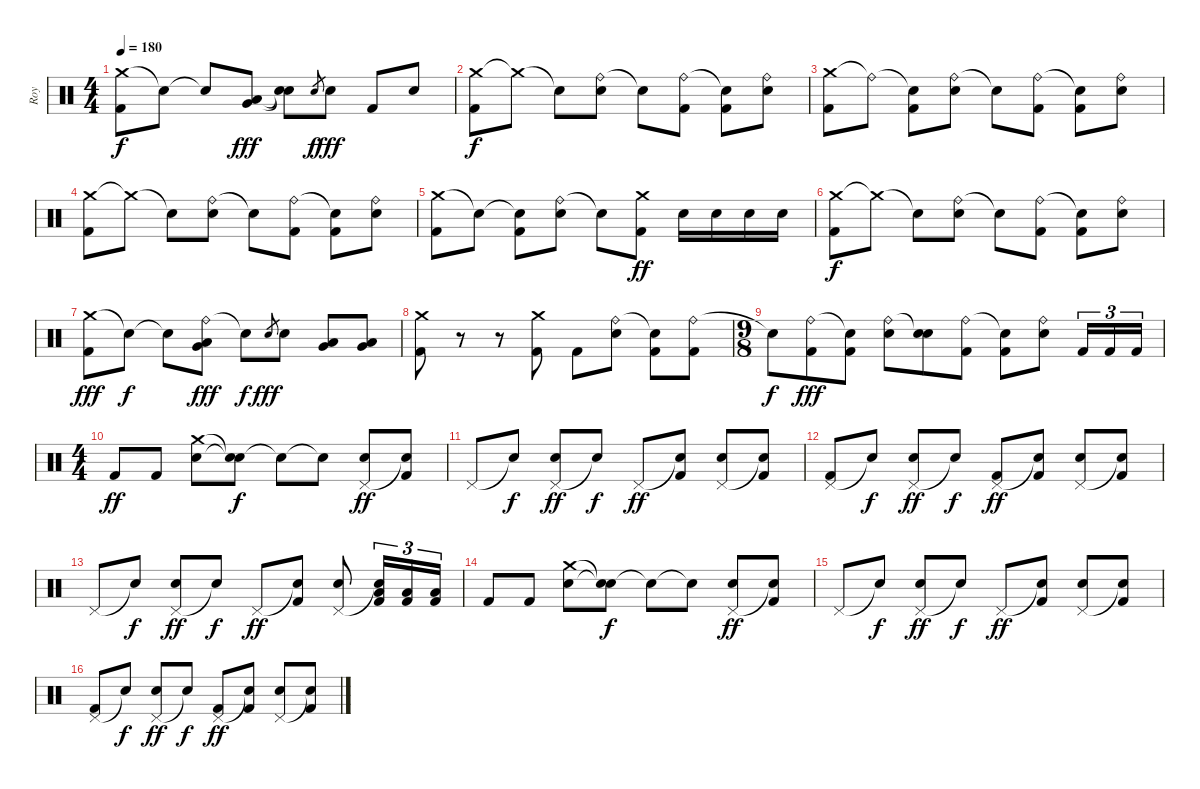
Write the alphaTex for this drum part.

\track ("Roy" "Roy") {instrument percussion}
\staff {score}
\articulation defaults
\ts (4 4)
\tempo 180
\clef neutral
\ks c
("Crash medium (hit)" "Kick (hit) 2").8{dy f} "Snare (hit)"{t}.8 "Snare (hit)"{t}.8 ("Very Low Tom (hit)" "Low Tom (hit)").8{dy fff} ("Snare (hit)"{t} "Snare (hit)"{t}).8 "Electric Snare (hit)".8{gr dy f} "Electric Snare (hit)".8{dy fff} "Kick (hit) 2".8 "Electric Snare (hit)".8 |
("Crash medium (hit)" "Kick (hit) 2").8{dy f} "Crash medium (hit)"{t}.8 "Snare (hit)"{t}.8 ("Ride (bell)" "Electric Snare (hit)").8 "Snare (hit)"{t}.8 ("Ride (bell)" "Kick (hit) 2").8 ("Snare (hit)"{t} "Kick (hit) 2").8 ("Ride (bell)" "Electric Snare (hit)").8 |
("Crash medium (hit)" "Kick (hit) 2").8 "Ride (bell)"{t}.8 ("Snare (hit)"{t} "Kick (hit) 2").8 ("Ride (bell)" "Electric Snare (hit)").8 "Snare (hit)"{t}.8 ("Ride (bell)" "Kick (hit) 2").8 ("Snare (hit)"{t} "Kick (hit) 2").8 ("Ride (bell)" "Electric Snare (hit)").8 |
("Crash medium (hit)" "Kick (hit) 2").8 "Crash medium (hit)"{t}.8 "Snare (hit)"{t}.8 ("Ride (bell)" "Electric Snare (hit)").8 "Snare (hit)"{t}.8 ("Ride (bell)" "Kick (hit) 2").8 ("Snare (hit)"{t} "Kick (hit) 2").8 ("Ride (bell)" "Electric Snare (hit)").8 |
("Crash medium (hit)" "Kick (hit) 2").8 "Snare (hit)"{t}.8 ("Snare (hit)"{t} "Kick (hit) 2").8 ("Ride (bell)" "Electric Snare (hit)").8 "Snare (hit)"{t}.8 ("Crash medium (hit)" "Kick (hit) 2").8{dy ff} "Electric Snare (hit)".16 "Electric Snare (hit)".16 "Electric Snare (hit)".16 "Electric Snare (hit)".16 |
("Crash medium (hit)" "Kick (hit) 2").8{dy f} "Crash medium (hit)"{t}.8 "Snare (hit)"{t}.8 ("Ride (bell)" "Electric Snare (hit)").8 "Snare (hit)"{t}.8 ("Ride (bell)" "Kick (hit) 2").8 ("Snare (hit)"{t} "Kick (hit) 2").8 ("Ride (bell)" "Electric Snare (hit)").8 |
("Crash medium (hit)" "Kick (hit) 2").8{dy fff} "Snare (hit)"{t}.8{dy f} "Snare (hit)"{t}.8 ("Ride (bell)" "Very Low Tom (hit)" "Low Tom (hit)").8{dy fff} "Snare (hit)"{t}.8{dy f} "Electric Snare (hit)".8{gr dy fff} "Electric Snare (hit)".8 ("Very Low Tom (hit)" "Low Tom (hit)").8 ("Very Low Tom (hit)" "Low Tom (hit)").8 |
("Crash medium (hit)" "Kick (hit) 2").8 r.8 r.8 ("Crash medium (hit)" "Kick (hit) 2").8 "Kick (hit) 2".8 ("Ride (bell)" "Electric Snare (hit)").8 ("Snare (hit)"{t} "Kick (hit) 2").8 ("Ride (bell)" "Kick (hit) 2").8 |
\ts (9 8)
"Snare (hit)"{t}.8{dy f} ("Ride (bell)" "Kick (hit) 2").8{dy fff} ("Snare (hit)"{t} "Kick (hit) 2").8 ("Ride (bell)" "Electric Snare (hit)").8 ("Snare (hit)"{t} "Electric Snare (hit)").8 ("Ride (bell)" "Kick (hit) 2").8 ("Snare (hit)"{t} "Kick (hit) 2").8 ("Ride (bell)" "Electric Snare (hit)").8 "Kick (hit) 2".16{tu (3 2)} "Kick (hit) 2".16{tu (3 2)} "Kick (hit) 2".16{tu (3 2)} |
\ts (4 4)
"Kick (hit) 2".8{dy ff} "Kick (hit) 2".8 ("Crash medium (hit)" "Electric Snare (hit)").8 ("Snare (hit)"{t} "Snare (hit)"{t}).8{dy f} "Snare (hit)"{t}.8 "Snare (hit)"{t}.8 ("Pedal Hi-Hat (hit)" "Electric Snare (hit)").8{dy ff} ("Snare (hit)"{t} "Kick (hit) 2").8 |
"Pedal Hi-Hat (hit)".8 "Snare (hit)"{t}.8{dy f} ("Pedal Hi-Hat (hit)" "Electric Snare (hit)").8{dy ff} "Snare (hit)"{t}.8{dy f} "Pedal Hi-Hat (hit)".8{dy ff} ("Snare (hit)"{t} "Kick (hit) 2").8 ("Pedal Hi-Hat (hit)" "Electric Snare (hit)").8 ("Snare (hit)"{t} "Kick (hit) 2").8 |
("Pedal Hi-Hat (hit)" "Kick (hit) 2").8 "Snare (hit)"{t}.8{dy f} ("Pedal Hi-Hat (hit)" "Electric Snare (hit)").8{dy ff} "Snare (hit)"{t}.8{dy f} ("Pedal Hi-Hat (hit)" "Kick (hit) 2").8{dy ff} ("Snare (hit)"{t} "Kick (hit) 2").8 ("Pedal Hi-Hat (hit)" "Electric Snare (hit)").8 ("Snare (hit)"{t} "Kick (hit) 2").8 |
"Pedal Hi-Hat (hit)".8 "Snare (hit)"{t}.8{dy f} ("Pedal Hi-Hat (hit)" "Electric Snare (hit)").8{dy ff} "Snare (hit)"{t}.8{dy f} "Pedal Hi-Hat (hit)".8{dy ff} ("Snare (hit)"{t} "Kick (hit) 2").8 ("Pedal Hi-Hat (hit)" "Electric Snare (hit)").8 ("Snare (hit)"{t} "Low Tom (hit)" "Kick (hit) 2").16{tu (3 2)} ("Low Tom (hit)" "Kick (hit) 2").16{tu (3 2)} ("Low Tom (hit)" "Kick (hit) 2").16{tu (3 2)} |
"Kick (hit) 2".8 "Kick (hit) 2".8 ("Crash medium (hit)" "Electric Snare (hit)").8 ("Snare (hit)"{t} "Snare (hit)"{t}).8{dy f} "Snare (hit)"{t}.8 "Snare (hit)"{t}.8 ("Pedal Hi-Hat (hit)" "Electric Snare (hit)").8{dy ff} ("Snare (hit)"{t} "Kick (hit) 2").8 |
"Pedal Hi-Hat (hit)".8 "Snare (hit)"{t}.8{dy f} ("Pedal Hi-Hat (hit)" "Electric Snare (hit)").8{dy ff} "Snare (hit)"{t}.8{dy f} "Pedal Hi-Hat (hit)".8{dy ff} ("Snare (hit)"{t} "Kick (hit) 2").8 ("Pedal Hi-Hat (hit)" "Electric Snare (hit)").8 ("Snare (hit)"{t} "Kick (hit) 2").8 |
("Pedal Hi-Hat (hit)" "Kick (hit) 2").8 "Snare (hit)"{t}.8{dy f} ("Pedal Hi-Hat (hit)" "Electric Snare (hit)").8{dy ff} "Snare (hit)"{t}.8{dy f} ("Pedal Hi-Hat (hit)" "Kick (hit) 2").8{dy ff} ("Snare (hit)"{t} "Kick (hit) 2").8 ("Pedal Hi-Hat (hit)" "Electric Snare (hit)").8 ("Snare (hit)"{t} "Kick (hit) 2").8
